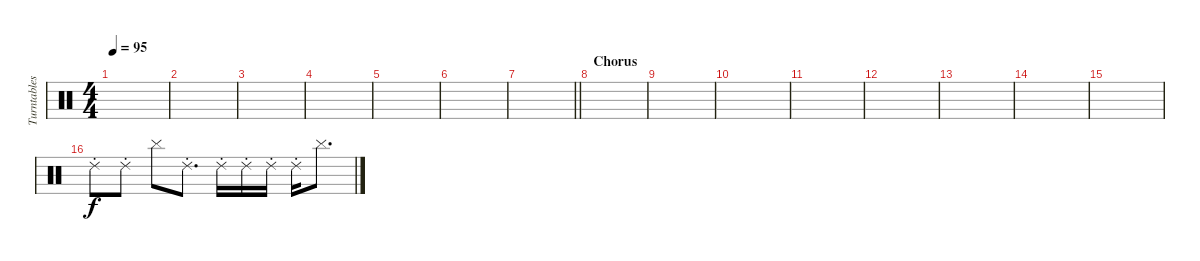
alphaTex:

\track ("Turntables - Joe Hahn" "Turntables") {instrument percussion}
\staff {score}
\articulation defaults
\ts (4 4)
\tempo 95
\clef neutral
\ks c
|
|
|
|
|
|
\barLineRight lightlight
|
\section ("" "Chorus")
|
|
|
|
|
|
|
|
"Ride (choke) 2".8{volume 13} "Ride (choke) 2".8 "Cymbal (hit)".8 "Ride (choke) 2".8{d} "Ride (choke) 2".16 "Ride (choke) 2".16 "Ride (choke) 2".16 "Ride (choke) 2".16 "Cymbal (hit)".8{d}
